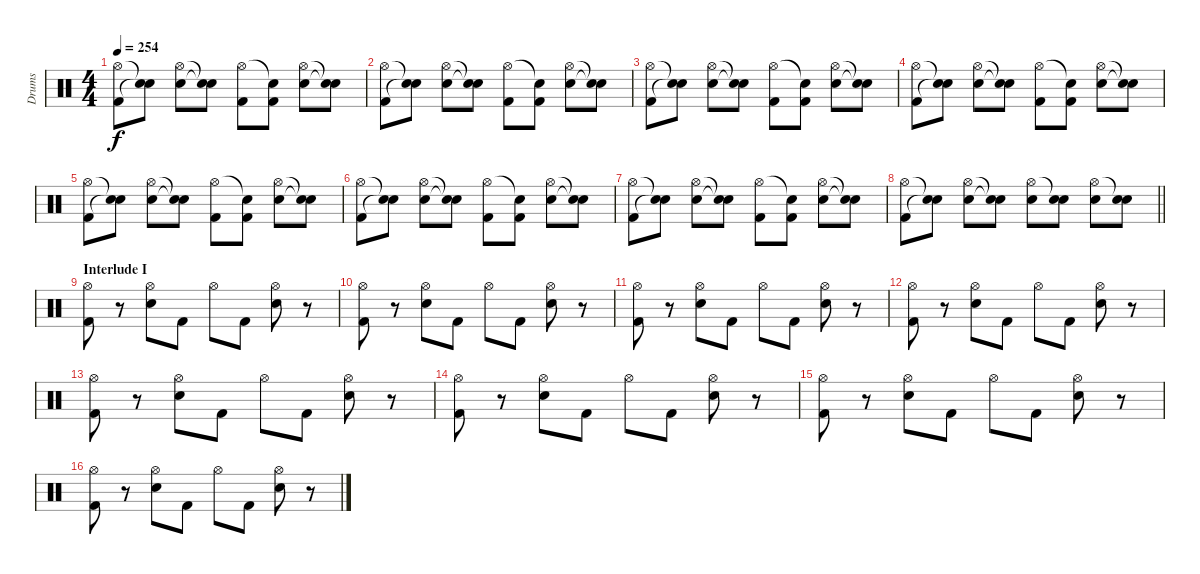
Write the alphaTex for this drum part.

\track ("Drums" "Drums") {instrument percussion}
\staff {score}
\articulation defaults
\ts (4 4)
\tempo 254
\clef neutral
\ks c
("Hi-Hat (open)" "Kick (hit) 2").8{dy f} ("Snare (hit)"{t} "Snare (hit)"{t}).8 ("Hi-Hat (open)" "Electric Snare (hit)").8 ("Snare (hit)"{t} "Snare (hit)"{t}).8 ("Hi-Hat (open)" "Kick (hit) 2").8 ("Snare (hit)"{t} "Kick (hit) 2").8 ("Hi-Hat (open)" "Electric Snare (hit)").8 ("Snare (hit)"{t} "Snare (hit)"{t}).8 |
("Hi-Hat (open)" "Kick (hit) 2").8 ("Snare (hit)"{t} "Snare (hit)"{t}).8 ("Hi-Hat (open)" "Electric Snare (hit)").8 ("Snare (hit)"{t} "Snare (hit)"{t}).8 ("Hi-Hat (open)" "Kick (hit) 2").8 ("Snare (hit)"{t} "Kick (hit) 2").8 ("Hi-Hat (open)" "Electric Snare (hit)").8 ("Snare (hit)"{t} "Snare (hit)"{t}).8 |
("Hi-Hat (open)" "Kick (hit) 2").8 ("Snare (hit)"{t} "Snare (hit)"{t}).8 ("Hi-Hat (open)" "Electric Snare (hit)").8 ("Snare (hit)"{t} "Snare (hit)"{t}).8 ("Hi-Hat (open)" "Kick (hit) 2").8 ("Snare (hit)"{t} "Kick (hit) 2").8 ("Hi-Hat (open)" "Electric Snare (hit)").8 ("Snare (hit)"{t} "Snare (hit)"{t}).8 |
("Hi-Hat (open)" "Kick (hit) 2").8 ("Snare (hit)"{t} "Snare (hit)"{t}).8 ("Hi-Hat (open)" "Electric Snare (hit)").8 ("Snare (hit)"{t} "Snare (hit)"{t}).8 ("Hi-Hat (open)" "Kick (hit) 2").8 ("Snare (hit)"{t} "Kick (hit) 2").8 ("Hi-Hat (open)" "Electric Snare (hit)").8 ("Snare (hit)"{t} "Snare (hit)"{t}).8 |
("Hi-Hat (open)" "Kick (hit) 2").8 ("Snare (hit)"{t} "Snare (hit)"{t}).8 ("Hi-Hat (open)" "Electric Snare (hit)").8 ("Snare (hit)"{t} "Snare (hit)"{t}).8 ("Hi-Hat (open)" "Kick (hit) 2").8 ("Snare (hit)"{t} "Kick (hit) 2").8 ("Hi-Hat (open)" "Electric Snare (hit)").8 ("Snare (hit)"{t} "Snare (hit)"{t}).8 |
("Hi-Hat (open)" "Kick (hit) 2").8 ("Snare (hit)"{t} "Snare (hit)"{t}).8 ("Hi-Hat (open)" "Electric Snare (hit)").8 ("Snare (hit)"{t} "Snare (hit)"{t}).8 ("Hi-Hat (open)" "Kick (hit) 2").8 ("Snare (hit)"{t} "Kick (hit) 2").8 ("Hi-Hat (open)" "Electric Snare (hit)").8 ("Snare (hit)"{t} "Snare (hit)"{t}).8 |
("Hi-Hat (open)" "Kick (hit) 2").8 ("Snare (hit)"{t} "Snare (hit)"{t}).8 ("Hi-Hat (open)" "Electric Snare (hit)").8 ("Snare (hit)"{t} "Snare (hit)"{t}).8 ("Hi-Hat (open)" "Kick (hit) 2").8 ("Snare (hit)"{t} "Kick (hit) 2").8 ("Hi-Hat (open)" "Electric Snare (hit)").8 ("Snare (hit)"{t} "Snare (hit)"{t}).8 |
\barLineRight lightlight
("Hi-Hat (open)" "Kick (hit) 2").8 ("Snare (hit)"{t} "Snare (hit)"{t}).8 ("Hi-Hat (open)" "Electric Snare (hit)").8 ("Snare (hit)"{t} "Snare (hit)"{t}).8 ("Hi-Hat (open)" "Electric Snare (hit)").8 ("Snare (hit)"{t} "Electric Snare (hit)").8 ("Hi-Hat (open)" "Electric Snare (hit)").8 ("Snare (hit)"{t} "Electric Snare (hit)").8 |
\section ("" "Interlude I")
("Hi-Hat (open)" "Kick (hit) 2").8 r.8 ("Hi-Hat (open)" "Electric Snare (hit)").8 "Kick (hit) 2".8 "Hi-Hat (open)".8 "Kick (hit) 2".8 ("Hi-Hat (open)" "Electric Snare (hit)").8 r.8 |
("Hi-Hat (open)" "Kick (hit) 2").8 r.8 ("Hi-Hat (open)" "Electric Snare (hit)").8 "Kick (hit) 2".8 "Hi-Hat (open)".8 "Kick (hit) 2".8 ("Hi-Hat (open)" "Electric Snare (hit)").8 r.8 |
("Hi-Hat (open)" "Kick (hit) 2").8 r.8 ("Hi-Hat (open)" "Electric Snare (hit)").8 "Kick (hit) 2".8 "Hi-Hat (open)".8 "Kick (hit) 2".8 ("Hi-Hat (open)" "Electric Snare (hit)").8 r.8 |
("Hi-Hat (open)" "Kick (hit) 2").8 r.8 ("Hi-Hat (open)" "Electric Snare (hit)").8 "Kick (hit) 2".8 "Hi-Hat (open)".8 "Kick (hit) 2".8 ("Hi-Hat (open)" "Electric Snare (hit)").8 r.8 |
("Hi-Hat (open)" "Kick (hit) 2").8 r.8 ("Hi-Hat (open)" "Electric Snare (hit)").8 "Kick (hit) 2".8 "Hi-Hat (open)".8 "Kick (hit) 2".8 ("Hi-Hat (open)" "Electric Snare (hit)").8 r.8 |
("Hi-Hat (open)" "Kick (hit) 2").8 r.8 ("Hi-Hat (open)" "Electric Snare (hit)").8 "Kick (hit) 2".8 "Hi-Hat (open)".8 "Kick (hit) 2".8 ("Hi-Hat (open)" "Electric Snare (hit)").8 r.8 |
("Hi-Hat (open)" "Kick (hit) 2").8 r.8 ("Hi-Hat (open)" "Electric Snare (hit)").8 "Kick (hit) 2".8 "Hi-Hat (open)".8 "Kick (hit) 2".8 ("Hi-Hat (open)" "Electric Snare (hit)").8 r.8 |
("Hi-Hat (open)" "Kick (hit) 2").8 r.8 ("Hi-Hat (open)" "Electric Snare (hit)").8 "Kick (hit) 2".8 "Hi-Hat (open)".8 "Kick (hit) 2".8 ("Hi-Hat (open)" "Electric Snare (hit)").8 r.8
